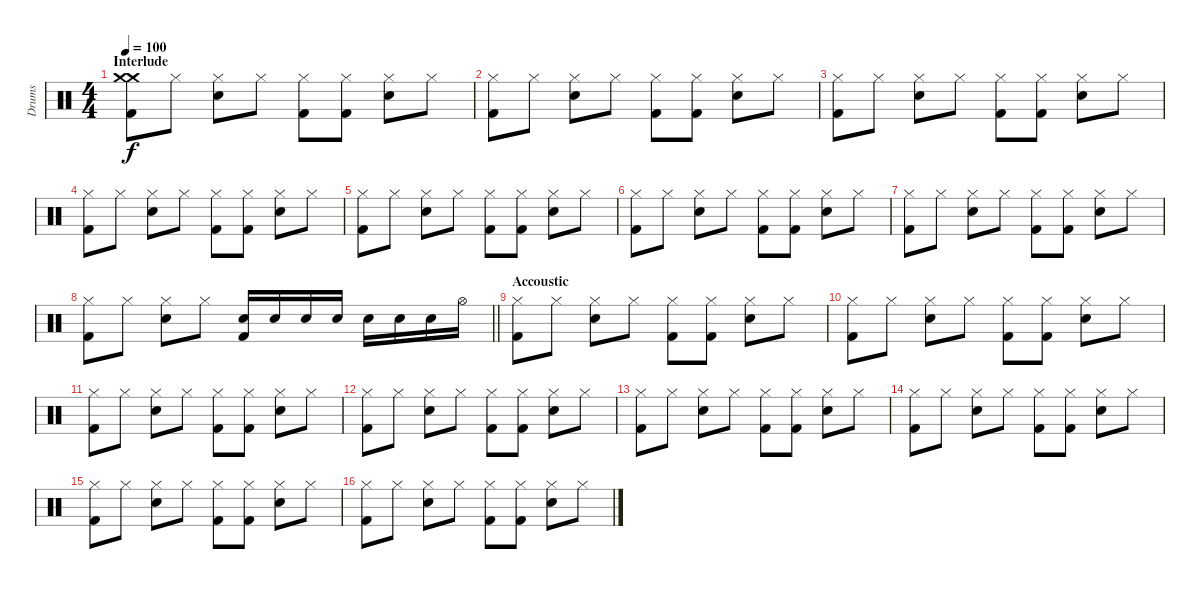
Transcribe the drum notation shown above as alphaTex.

\track ("Drums" "Drums") {instrument percussion}
\staff {score}
\articulation defaults
\ts (4 4)
\section ("" "Interlude")
\tempo 100
\clef neutral
\ks c
("Crash medium (hit)" "Crash medium (hit)" "Kick (hit) 2").8{dy f} "Hi-Hat (closed)".8 ("Hi-Hat (closed)" "Electric Snare (hit)").8 "Hi-Hat (closed)".8 ("Hi-Hat (closed)" "Kick (hit) 2").8 ("Hi-Hat (closed)" "Kick (hit) 2").8 ("Hi-Hat (closed)" "Electric Snare (hit)").8 "Hi-Hat (closed)".8 |
("Hi-Hat (closed)" "Kick (hit) 2").8 "Hi-Hat (closed)".8 ("Hi-Hat (closed)" "Electric Snare (hit)").8 "Hi-Hat (closed)".8 ("Hi-Hat (closed)" "Kick (hit) 2").8 ("Hi-Hat (closed)" "Kick (hit) 2").8 ("Hi-Hat (closed)" "Electric Snare (hit)").8 "Hi-Hat (closed)".8 |
("Hi-Hat (closed)" "Kick (hit) 2").8 "Hi-Hat (closed)".8 ("Hi-Hat (closed)" "Electric Snare (hit)").8 "Hi-Hat (closed)".8 ("Hi-Hat (closed)" "Kick (hit) 2").8 ("Hi-Hat (closed)" "Kick (hit) 2").8 ("Hi-Hat (closed)" "Electric Snare (hit)").8 "Hi-Hat (closed)".8 |
("Hi-Hat (closed)" "Kick (hit) 2").8 "Hi-Hat (closed)".8 ("Hi-Hat (closed)" "Electric Snare (hit)").8 "Hi-Hat (closed)".8 ("Hi-Hat (closed)" "Kick (hit) 2").8 ("Hi-Hat (closed)" "Kick (hit) 2").8 ("Hi-Hat (closed)" "Electric Snare (hit)").8 "Hi-Hat (closed)".8 |
("Hi-Hat (closed)" "Kick (hit) 2").8 "Hi-Hat (closed)".8 ("Hi-Hat (closed)" "Electric Snare (hit)").8 "Hi-Hat (closed)".8 ("Hi-Hat (closed)" "Kick (hit) 2").8 ("Hi-Hat (closed)" "Kick (hit) 2").8 ("Hi-Hat (closed)" "Electric Snare (hit)").8 "Hi-Hat (closed)".8 |
("Hi-Hat (closed)" "Kick (hit) 2").8 "Hi-Hat (closed)".8 ("Hi-Hat (closed)" "Electric Snare (hit)").8 "Hi-Hat (closed)".8 ("Hi-Hat (closed)" "Kick (hit) 2").8 ("Hi-Hat (closed)" "Kick (hit) 2").8 ("Hi-Hat (closed)" "Electric Snare (hit)").8 "Hi-Hat (closed)".8 |
("Hi-Hat (closed)" "Kick (hit) 2").8 "Hi-Hat (closed)".8 ("Hi-Hat (closed)" "Electric Snare (hit)").8 "Hi-Hat (closed)".8 ("Hi-Hat (closed)" "Kick (hit) 2").8 ("Hi-Hat (closed)" "Kick (hit) 2").8 ("Hi-Hat (closed)" "Electric Snare (hit)").8 "Hi-Hat (closed)".8 |
\barLineRight lightlight
("Hi-Hat (closed)" "Kick (hit) 2").8 "Hi-Hat (closed)".8 ("Hi-Hat (closed)" "Electric Snare (hit)").8 "Hi-Hat (closed)".8 ("Electric Snare (hit)" "Kick (hit) 2").16 "Electric Snare (hit)".16 "Electric Snare (hit)".16 "Electric Snare (hit)".16 "Electric Snare (hit)".16 "Electric Snare (hit)".16 "Electric Snare (hit)".16 "Hi-Hat (open)".16 |
\section ("" "Accoustic")
("Hi-Hat (closed)" "Kick (hit) 2").8 "Hi-Hat (closed)".8 ("Hi-Hat (closed)" "Electric Snare (hit)").8 "Hi-Hat (closed)".8 ("Hi-Hat (closed)" "Kick (hit) 2").8 ("Hi-Hat (closed)" "Kick (hit) 2").8 ("Hi-Hat (closed)" "Electric Snare (hit)").8 "Hi-Hat (closed)".8 |
("Hi-Hat (closed)" "Kick (hit) 2").8 "Hi-Hat (closed)".8 ("Hi-Hat (closed)" "Electric Snare (hit)").8 "Hi-Hat (closed)".8 ("Hi-Hat (closed)" "Kick (hit) 2").8 ("Hi-Hat (closed)" "Kick (hit) 2").8 ("Hi-Hat (closed)" "Electric Snare (hit)").8 "Hi-Hat (closed)".8 |
("Hi-Hat (closed)" "Kick (hit) 2").8 "Hi-Hat (closed)".8 ("Hi-Hat (closed)" "Electric Snare (hit)").8 "Hi-Hat (closed)".8 ("Hi-Hat (closed)" "Kick (hit) 2").8 ("Hi-Hat (closed)" "Kick (hit) 2").8 ("Hi-Hat (closed)" "Electric Snare (hit)").8 "Hi-Hat (closed)".8 |
("Hi-Hat (closed)" "Kick (hit) 2").8 "Hi-Hat (closed)".8 ("Hi-Hat (closed)" "Electric Snare (hit)").8 "Hi-Hat (closed)".8 ("Hi-Hat (closed)" "Kick (hit) 2").8 ("Hi-Hat (closed)" "Kick (hit) 2").8 ("Hi-Hat (closed)" "Electric Snare (hit)").8 "Hi-Hat (closed)".8 |
("Hi-Hat (closed)" "Kick (hit) 2").8 "Hi-Hat (closed)".8 ("Hi-Hat (closed)" "Electric Snare (hit)").8 "Hi-Hat (closed)".8 ("Hi-Hat (closed)" "Kick (hit) 2").8 ("Hi-Hat (closed)" "Kick (hit) 2").8 ("Hi-Hat (closed)" "Electric Snare (hit)").8 "Hi-Hat (closed)".8 |
("Hi-Hat (closed)" "Kick (hit) 2").8 "Hi-Hat (closed)".8 ("Hi-Hat (closed)" "Electric Snare (hit)").8 "Hi-Hat (closed)".8 ("Hi-Hat (closed)" "Kick (hit) 2").8 ("Hi-Hat (closed)" "Kick (hit) 2").8 ("Hi-Hat (closed)" "Electric Snare (hit)").8 "Hi-Hat (closed)".8 |
("Hi-Hat (closed)" "Kick (hit) 2").8 "Hi-Hat (closed)".8 ("Hi-Hat (closed)" "Electric Snare (hit)").8 "Hi-Hat (closed)".8 ("Hi-Hat (closed)" "Kick (hit) 2").8 ("Hi-Hat (closed)" "Kick (hit) 2").8 ("Hi-Hat (closed)" "Electric Snare (hit)").8 "Hi-Hat (closed)".8 |
("Hi-Hat (closed)" "Kick (hit) 2").8 "Hi-Hat (closed)".8 ("Hi-Hat (closed)" "Electric Snare (hit)").8 "Hi-Hat (closed)".8 ("Hi-Hat (closed)" "Kick (hit) 2").8 ("Hi-Hat (closed)" "Kick (hit) 2").8 ("Hi-Hat (closed)" "Electric Snare (hit)").8 "Hi-Hat (closed)".8
